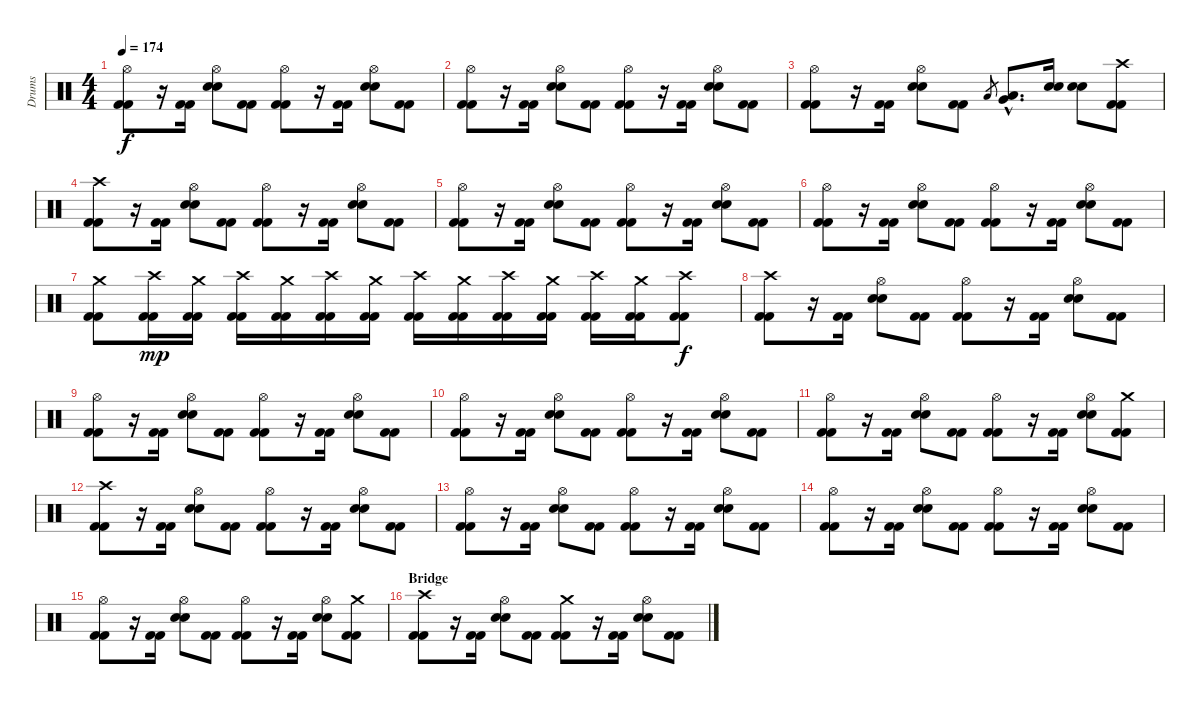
\track ("Drums" "Drums") {instrument percussion}
\staff {score}
\articulation defaults
\ts (4 4)
\tempo 174
\clef neutral
\ks c
("Hi-Hat (open)" "Kick (hit) 2" "Kick (hit) 2").8{dy f} r.16 ("Kick (hit) 2" "Kick (hit) 2").16 ("Hi-Hat (open)" "Snare (hit) 2" "Snare (hit) 2").8 ("Kick (hit) 2" "Kick (hit) 2").8 ("Hi-Hat (open)" "Kick (hit) 2" "Kick (hit) 2").8 r.16 ("Kick (hit) 2" "Kick (hit) 2").16 ("Hi-Hat (open)" "Snare (hit) 2" "Snare (hit) 2").8 ("Kick (hit) 2" "Kick (hit) 2").8 |
("Hi-Hat (open)" "Kick (hit) 2" "Kick (hit) 2").8 r.16 ("Kick (hit) 2" "Kick (hit) 2").16 ("Hi-Hat (open)" "Snare (hit) 2" "Snare (hit) 2").8 ("Kick (hit) 2" "Kick (hit) 2").8 ("Hi-Hat (open)" "Kick (hit) 2" "Kick (hit) 2").8 r.16 ("Kick (hit) 2" "Kick (hit) 2").16 ("Hi-Hat (open)" "Snare (hit) 2" "Snare (hit) 2").8 ("Kick (hit) 2" "Kick (hit) 2").8 |
("Hi-Hat (open)" "Kick (hit) 2" "Kick (hit) 2").8 r.16 ("Kick (hit) 2" "Kick (hit) 2").16 ("Hi-Hat (open)" "Snare (hit) 2" "Snare (hit) 2").8 ("Kick (hit) 2" "Kick (hit) 2").8 "Low Tom (hit)".8{gr} ("Low Tom (hit)"{hac} "Very Low Tom (hit)"{hac}).8{d} ("Snare (hit) 2" "Snare (hit) 2").16 ("Snare (hit) 2" "Snare (hit) 2").8 ("Crash high (hit)" "Kick (hit) 2" "Kick (hit) 2").8 |
("Crash high (hit)" "Kick (hit) 2" "Kick (hit) 2").8 r.16 ("Kick (hit) 2" "Kick (hit) 2").16 ("Hi-Hat (open)" "Snare (hit) 2" "Snare (hit) 2").8 ("Kick (hit) 2" "Kick (hit) 2").8 ("Hi-Hat (open)" "Kick (hit) 2" "Kick (hit) 2").8 r.16 ("Kick (hit) 2" "Kick (hit) 2").16 ("Hi-Hat (open)" "Snare (hit) 2" "Snare (hit) 2").8 ("Kick (hit) 2" "Kick (hit) 2").8 |
("Hi-Hat (open)" "Kick (hit) 2" "Kick (hit) 2").8 r.16 ("Kick (hit) 2" "Kick (hit) 2").16 ("Hi-Hat (open)" "Snare (hit) 2" "Snare (hit) 2").8 ("Kick (hit) 2" "Kick (hit) 2").8 ("Hi-Hat (open)" "Kick (hit) 2" "Kick (hit) 2").8 r.16 ("Kick (hit) 2" "Kick (hit) 2").16 ("Hi-Hat (open)" "Snare (hit) 2" "Snare (hit) 2").8 ("Kick (hit) 2" "Kick (hit) 2").8 |
("Hi-Hat (open)" "Kick (hit) 2" "Kick (hit) 2").8 r.16 ("Kick (hit) 2" "Kick (hit) 2").16 ("Hi-Hat (open)" "Snare (hit) 2" "Snare (hit) 2").8 ("Kick (hit) 2" "Kick (hit) 2").8 ("Hi-Hat (open)" "Kick (hit) 2" "Kick (hit) 2").8 r.16 ("Kick (hit) 2" "Kick (hit) 2").16 ("Hi-Hat (open)" "Snare (hit) 2" "Snare (hit) 2").8 ("Kick (hit) 2" "Kick (hit) 2").8 |
("Crash medium (hit)" "Kick (hit) 2" "Kick (hit) 2").8 ("Crash high (hit)" "Kick (hit) 2" "Kick (hit) 2").16{dy mp} ("Crash medium (hit)" "Kick (hit) 2" "Kick (hit) 2").16 ("Crash high (hit)" "Kick (hit) 2" "Kick (hit) 2").16 ("Crash medium (hit)" "Kick (hit) 2" "Kick (hit) 2").16 ("Crash high (hit)" "Kick (hit) 2" "Kick (hit) 2").16 ("Crash medium (hit)" "Kick (hit) 2" "Kick (hit) 2").16 ("Crash high (hit)" "Kick (hit) 2" "Kick (hit) 2").16 ("Crash medium (hit)" "Kick (hit) 2" "Kick (hit) 2").16 ("Crash high (hit)" "Kick (hit) 2" "Kick (hit) 2").16 ("Crash medium (hit)" "Kick (hit) 2" "Kick (hit) 2").16 ("Crash high (hit)" "Kick (hit) 2" "Kick (hit) 2").16 ("Crash medium (hit)" "Kick (hit) 2" "Kick (hit) 2").16 ("Crash high (hit)" "Kick (hit) 2" "Kick (hit) 2").8{dy f} |
("Crash high (hit)" "Kick (hit) 2" "Kick (hit) 2").8 r.16 ("Kick (hit) 2" "Kick (hit) 2").16 ("Hi-Hat (open)" "Snare (hit) 2" "Snare (hit) 2").8 ("Kick (hit) 2" "Kick (hit) 2").8 ("Hi-Hat (open)" "Kick (hit) 2" "Kick (hit) 2").8 r.16 ("Kick (hit) 2" "Kick (hit) 2").16 ("Hi-Hat (open)" "Snare (hit) 2" "Snare (hit) 2").8 ("Kick (hit) 2" "Kick (hit) 2").8 |
("Hi-Hat (open)" "Kick (hit) 2" "Kick (hit) 2").8 r.16 ("Kick (hit) 2" "Kick (hit) 2").16 ("Hi-Hat (open)" "Snare (hit) 2" "Snare (hit) 2").8 ("Kick (hit) 2" "Kick (hit) 2").8 ("Hi-Hat (open)" "Kick (hit) 2" "Kick (hit) 2").8 r.16 ("Kick (hit) 2" "Kick (hit) 2").16 ("Hi-Hat (open)" "Snare (hit) 2" "Snare (hit) 2").8 ("Kick (hit) 2" "Kick (hit) 2").8 |
("Hi-Hat (open)" "Kick (hit) 2" "Kick (hit) 2").8 r.16 ("Kick (hit) 2" "Kick (hit) 2").16 ("Hi-Hat (open)" "Snare (hit) 2" "Snare (hit) 2").8 ("Kick (hit) 2" "Kick (hit) 2").8 ("Hi-Hat (open)" "Kick (hit) 2" "Kick (hit) 2").8 r.16 ("Kick (hit) 2" "Kick (hit) 2").16 ("Hi-Hat (open)" "Snare (hit) 2" "Snare (hit) 2").8 ("Kick (hit) 2" "Kick (hit) 2").8 |
("Hi-Hat (open)" "Kick (hit) 2" "Kick (hit) 2").8 r.16 ("Kick (hit) 2" "Kick (hit) 2").16 ("Hi-Hat (open)" "Snare (hit) 2" "Snare (hit) 2").8 ("Kick (hit) 2" "Kick (hit) 2").8 ("Hi-Hat (open)" "Kick (hit) 2" "Kick (hit) 2").8 r.16 ("Kick (hit) 2" "Kick (hit) 2").16 ("Hi-Hat (open)" "Snare (hit) 2" "Snare (hit) 2").8 ("Crash medium (hit)" "Kick (hit) 2" "Kick (hit) 2").8 |
("Crash high (hit)" "Kick (hit) 2" "Kick (hit) 2").8 r.16 ("Kick (hit) 2" "Kick (hit) 2").16 ("Hi-Hat (open)" "Snare (hit) 2" "Snare (hit) 2").8 ("Kick (hit) 2" "Kick (hit) 2").8 ("Hi-Hat (open)" "Kick (hit) 2" "Kick (hit) 2").8 r.16 ("Kick (hit) 2" "Kick (hit) 2").16 ("Hi-Hat (open)" "Snare (hit) 2" "Snare (hit) 2").8 ("Kick (hit) 2" "Kick (hit) 2").8 |
("Hi-Hat (open)" "Kick (hit) 2" "Kick (hit) 2").8 r.16 ("Kick (hit) 2" "Kick (hit) 2").16 ("Hi-Hat (open)" "Snare (hit) 2" "Snare (hit) 2").8 ("Kick (hit) 2" "Kick (hit) 2").8 ("Hi-Hat (open)" "Kick (hit) 2" "Kick (hit) 2").8 r.16 ("Kick (hit) 2" "Kick (hit) 2").16 ("Hi-Hat (open)" "Snare (hit) 2" "Snare (hit) 2").8 ("Kick (hit) 2" "Kick (hit) 2").8 |
("Hi-Hat (open)" "Kick (hit) 2" "Kick (hit) 2").8 r.16 ("Kick (hit) 2" "Kick (hit) 2").16 ("Hi-Hat (open)" "Snare (hit) 2" "Snare (hit) 2").8 ("Kick (hit) 2" "Kick (hit) 2").8 ("Hi-Hat (open)" "Kick (hit) 2" "Kick (hit) 2").8 r.16 ("Kick (hit) 2" "Kick (hit) 2").16 ("Hi-Hat (open)" "Snare (hit) 2" "Snare (hit) 2").8 ("Kick (hit) 2" "Kick (hit) 2").8 |
("Hi-Hat (open)" "Kick (hit) 2" "Kick (hit) 2").8 r.16 ("Kick (hit) 2" "Kick (hit) 2").16 ("Hi-Hat (open)" "Snare (hit) 2" "Snare (hit) 2").8 ("Kick (hit) 2" "Kick (hit) 2").8 ("Hi-Hat (open)" "Kick (hit) 2" "Kick (hit) 2").8 r.16 ("Kick (hit) 2" "Kick (hit) 2").16 ("Hi-Hat (open)" "Snare (hit) 2" "Snare (hit) 2").8 ("Crash medium (hit)" "Kick (hit) 2" "Kick (hit) 2").8 |
\section ("" "Bridge")
("Crash high (hit)" "Kick (hit) 2" "Kick (hit) 2").8 r.16 ("Kick (hit) 2" "Kick (hit) 2").16 ("Hi-Hat (open)" "Snare (hit) 2" "Snare (hit) 2").8 ("Kick (hit) 2" "Kick (hit) 2").8 ("Crash medium (hit)" "Kick (hit) 2" "Kick (hit) 2").8 r.16 ("Kick (hit) 2" "Kick (hit) 2").16 ("Hi-Hat (open)" "Snare (hit) 2" "Snare (hit) 2").8 ("Kick (hit) 2" "Kick (hit) 2").8
